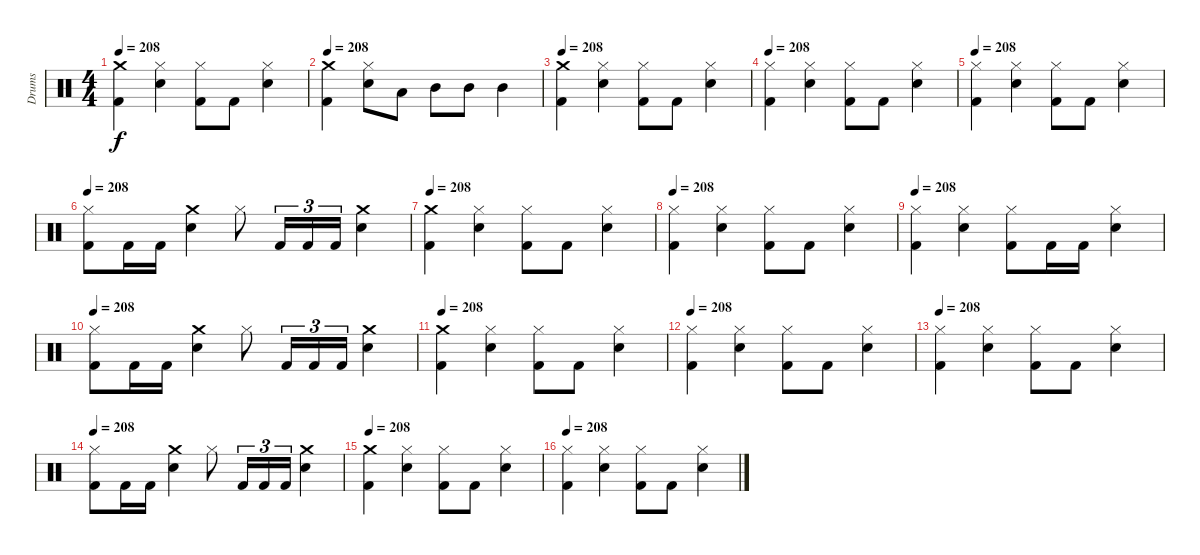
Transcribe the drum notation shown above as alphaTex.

\track ("Drums" "Drums") {instrument percussion}
\staff {score}
\articulation defaults
\ts (4 4)
\tempo 208
\clef neutral
\ks c
("Kick (hit) 2" "Crash medium (hit)").4{dy f} ("Snare (hit) 2" "Hi-Hat (closed)").4 ("Kick (hit) 2" "Hi-Hat (closed)").8 "Kick (hit) 2".8 ("Snare (hit) 2" "Hi-Hat (closed)").4 |
\tempo 208
("Kick (hit) 2" "Crash medium (hit)").4 ("Snare (hit) 2" "Hi-Hat (closed)").8 "Low Tom (hit)".8 "Mid Tom (hit)".8 "Mid Tom (hit)".8 "Mid Tom (hit)".4 |
\tempo 208
("Kick (hit) 2" "Crash medium (hit)").4 ("Snare (hit) 2" "Hi-Hat (closed)").4 ("Kick (hit) 2" "Hi-Hat (closed)").8 "Kick (hit) 2".8 ("Snare (hit) 2" "Hi-Hat (closed)").4 |
\tempo 208
("Hi-Hat (closed)" "Kick (hit) 2").4 ("Snare (hit) 2" "Hi-Hat (closed)").4 ("Hi-Hat (closed)" "Kick (hit) 2").8 "Kick (hit) 2".8 ("Snare (hit) 2" "Hi-Hat (closed)").4 |
\tempo 208
("Kick (hit) 2" "Hi-Hat (closed)").4 ("Snare (hit) 2" "Hi-Hat (closed)").4 ("Hi-Hat (closed)" "Kick (hit) 2").8 "Kick (hit) 2".8 ("Snare (hit) 2" "Hi-Hat (closed)").4 |
\tempo 208
("Hi-Hat (closed)" "Kick (hit) 2").8 "Kick (hit) 2".16 "Kick (hit) 2".16 ("Snare (hit) 2" "Crash medium (hit)").4 "Hi-Hat (closed)".8 "Kick (hit) 2".16{tu (3 2)} "Kick (hit) 2".16{tu (3 2)} "Kick (hit) 2".16{tu (3 2)} ("Snare (hit) 2" "Crash medium (hit)").4 |
\tempo 208
("Crash medium (hit)" "Kick (hit) 2").4 ("Snare (hit) 2" "Hi-Hat (closed)").4 ("Kick (hit) 2" "Hi-Hat (closed)").8 "Kick (hit) 2".8 ("Snare (hit) 2" "Hi-Hat (closed)").4 |
\tempo 208
("Kick (hit) 2" "Hi-Hat (closed)").4 ("Snare (hit) 2" "Hi-Hat (closed)").4 ("Hi-Hat (closed)" "Kick (hit) 2").8 "Kick (hit) 2".8 ("Snare (hit) 2" "Hi-Hat (closed)").4 |
\tempo 208
("Kick (hit) 2" "Hi-Hat (closed)").4 ("Snare (hit) 2" "Hi-Hat (closed)").4 ("Hi-Hat (closed)" "Kick (hit) 2").8 "Kick (hit) 2".16 "Kick (hit) 2".16 ("Snare (hit) 2" "Hi-Hat (closed)").4 |
\tempo 208
("Hi-Hat (closed)" "Kick (hit) 2").8 "Kick (hit) 2".16 "Kick (hit) 2".16 ("Snare (hit) 2" "Crash medium (hit)").4 "Hi-Hat (closed)".8 "Kick (hit) 2".16{tu (3 2)} "Kick (hit) 2".16{tu (3 2)} "Kick (hit) 2".16{tu (3 2)} ("Snare (hit) 2" "Crash medium (hit)").4 |
\tempo 208
("Crash medium (hit)" "Kick (hit) 2").4 ("Snare (hit) 2" "Hi-Hat (closed)").4 ("Kick (hit) 2" "Hi-Hat (closed)").8 "Kick (hit) 2".8 ("Snare (hit) 2" "Hi-Hat (closed)").4 |
\tempo 208
("Kick (hit) 2" "Hi-Hat (closed)").4 ("Snare (hit) 2" "Hi-Hat (closed)").4 ("Hi-Hat (closed)" "Kick (hit) 2").8 "Kick (hit) 2".8 ("Snare (hit) 2" "Hi-Hat (closed)").4 |
\tempo 208
("Kick (hit) 2" "Hi-Hat (closed)").4 ("Snare (hit) 2" "Hi-Hat (closed)").4 ("Hi-Hat (closed)" "Kick (hit) 2").8 "Kick (hit) 2".8 ("Snare (hit) 2" "Hi-Hat (closed)").4 |
\tempo 208
("Hi-Hat (closed)" "Kick (hit) 2").8 "Kick (hit) 2".16 "Kick (hit) 2".16 ("Snare (hit) 2" "Crash medium (hit)").4 "Hi-Hat (closed)".8 "Kick (hit) 2".16{tu (3 2)} "Kick (hit) 2".16{tu (3 2)} "Kick (hit) 2".16{tu (3 2)} ("Snare (hit) 2" "Crash medium (hit)").4 |
\tempo 208
("Crash medium (hit)" "Kick (hit) 2").4 ("Snare (hit) 2" "Hi-Hat (closed)").4 ("Kick (hit) 2" "Hi-Hat (closed)").8 "Kick (hit) 2".8 ("Snare (hit) 2" "Hi-Hat (closed)").4 |
\tempo 208
("Kick (hit) 2" "Hi-Hat (closed)").4 ("Snare (hit) 2" "Hi-Hat (closed)").4 ("Hi-Hat (closed)" "Kick (hit) 2").8 "Kick (hit) 2".8 ("Snare (hit) 2" "Hi-Hat (closed)").4
